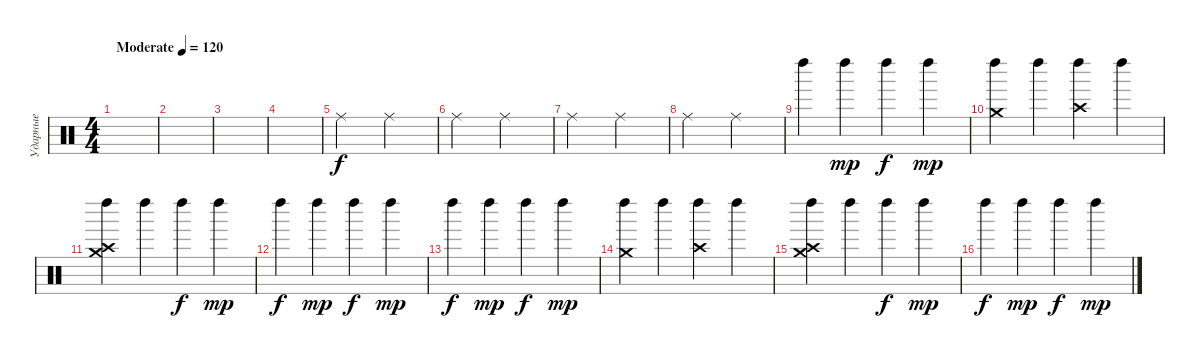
\track ("Ударные" "Ударные") {instrument percussion}
\staff {score}
\articulation defaults
\ts (4 4)
\tempo (120 "Moderate")
\clef neutral
\ks c
|
|
|
|
"Ride (middle)".2 "Ride (middle)".2 |
"Ride (middle)".2 "Ride (middle)".2 |
"Ride (middle)".2 "Ride (middle)".2 |
"Ride (middle)".2 "Ride (middle)".2 |
"Left Maraca (hit)".4{dy f} "Left Maraca (hit)".4{dy mp} "Left Maraca (hit)".4{dy f} "Left Maraca (hit)".4{dy mp} |
("Crash medium (hit)" "Left Maraca (hit)").4 "Left Maraca (hit)".4 ("Crash high (hit)" "Left Maraca (hit)").4 "Left Maraca (hit)".4 |
("Crash high (hit)" "Crash medium (hit)" "Left Maraca (hit)").4 "Left Maraca (hit)".4 "Left Maraca (hit)".4{dy f} "Left Maraca (hit)".4{dy mp} |
"Left Maraca (hit)".4{dy f} "Left Maraca (hit)".4{dy mp} "Left Maraca (hit)".4{dy f} "Left Maraca (hit)".4{dy mp} |
"Left Maraca (hit)".4{dy f} "Left Maraca (hit)".4{dy mp} "Left Maraca (hit)".4{dy f} "Left Maraca (hit)".4{dy mp} |
("Crash medium (hit)" "Left Maraca (hit)").4 "Left Maraca (hit)".4 ("Crash high (hit)" "Left Maraca (hit)").4 "Left Maraca (hit)".4 |
("Crash high (hit)" "Crash medium (hit)" "Left Maraca (hit)").4 "Left Maraca (hit)".4 "Left Maraca (hit)".4{dy f} "Left Maraca (hit)".4{dy mp} |
"Left Maraca (hit)".4{dy f} "Left Maraca (hit)".4{dy mp} "Left Maraca (hit)".4{dy f} "Left Maraca (hit)".4{dy mp}
